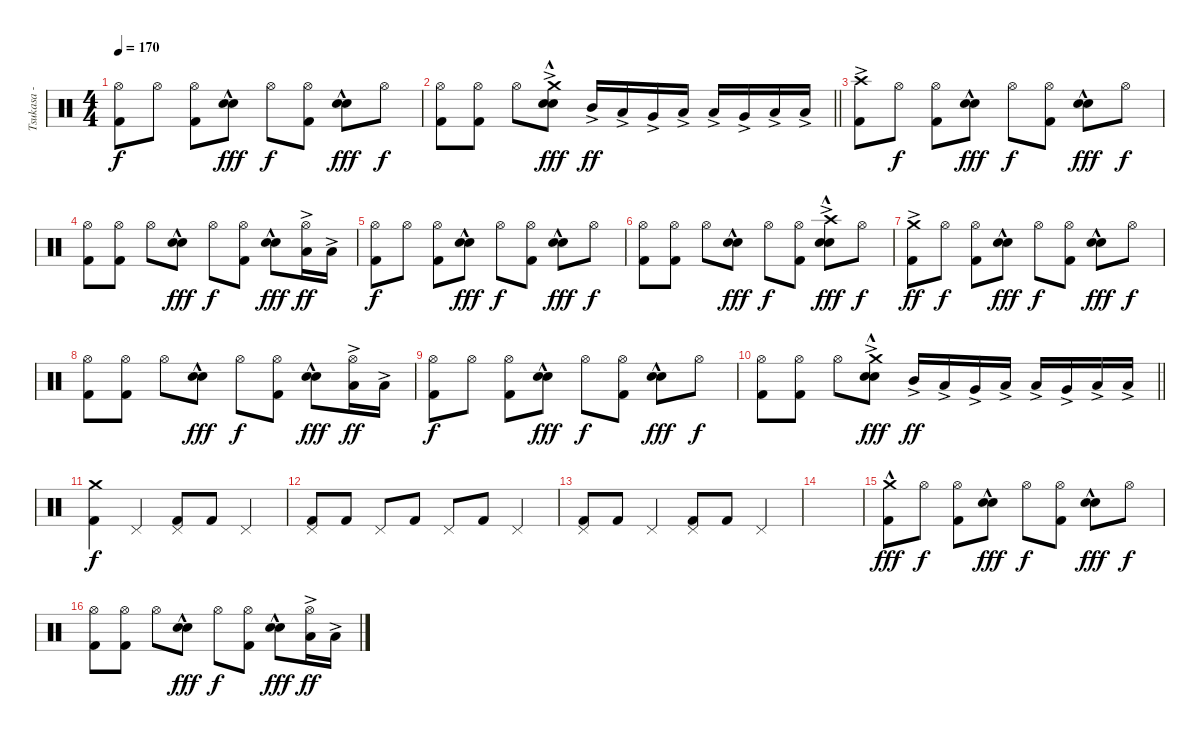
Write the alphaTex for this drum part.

\track ("Tsukasa - Drums" "Tsukasa - ") {instrument percussion}
\staff {score}
\articulation defaults
\ts (4 4)
\tempo 170
\clef neutral
\ks c
("Hi-Hat (open)" "Kick (hit) 2").8{dy f} "Hi-Hat (open)".8 ("Hi-Hat (open)" "Kick (hit) 2").8 ("Electric Snare (hit)"{hac} "Snare (hit) 2").8{dy fff} "Hi-Hat (open)".8{dy f} ("Hi-Hat (open)" "Kick (hit) 2").8 ("Electric Snare (hit)"{hac} "Snare (hit) 2").8{dy fff} "Hi-Hat (open)".8{dy f} |
\barLineRight lightlight
("Hi-Hat (open)" "Kick (hit) 2").8 ("Hi-Hat (open)" "Kick (hit) 2").8 "Hi-Hat (open)".8 ("Crash medium (hit)"{ac} "Electric Snare (hit)"{hac} "Snare (hit) 2").8{dy fff} "Mid Tom (hit)"{ac}.16{dy ff} "Low Tom (hit)"{ac}.16 "Very Low Tom (hit)"{ac}.16 "Low Floor Tom (hit)"{ac}.16 "Low Tom (hit)"{ac}.16 "Very Low Tom (hit)"{ac}.16 "Low Floor Tom (hit)"{ac}.16 "Low Floor Tom (hit)"{ac}.16 |
\section ("" "")
("Crash high (hit)"{ac} "Kick (hit) 2").8 "Hi-Hat (open)".8{dy f} ("Hi-Hat (open)" "Kick (hit) 2").8 ("Electric Snare (hit)"{hac} "Snare (hit) 2").8{dy fff} "Hi-Hat (open)".8{dy f} ("Hi-Hat (open)" "Kick (hit) 2").8 ("Electric Snare (hit)"{hac} "Snare (hit) 2").8{dy fff} "Hi-Hat (open)".8{dy f} |
("Hi-Hat (open)" "Kick (hit) 2").8 ("Hi-Hat (open)" "Kick (hit) 2").8 "Hi-Hat (open)".8 ("Electric Snare (hit)"{hac} "Snare (hit) 2").8{dy fff} "Hi-Hat (open)".8{dy f} ("Hi-Hat (open)" "Kick (hit) 2").8 ("Electric Snare (hit)"{hac} "Snare (hit) 2").8{dy fff} ("Hi-Hat (open)" "Low Tom (hit)"{ac}).16{dy ff} "Low Tom (hit)"{ac}.16 |
("Hi-Hat (open)" "Kick (hit) 2").8{dy f} "Hi-Hat (open)".8 ("Hi-Hat (open)" "Kick (hit) 2").8 ("Electric Snare (hit)"{hac} "Snare (hit) 2").8{dy fff} "Hi-Hat (open)".8{dy f} ("Hi-Hat (open)" "Kick (hit) 2").8 ("Electric Snare (hit)"{hac} "Snare (hit) 2").8{dy fff} "Hi-Hat (open)".8{dy f} |
("Hi-Hat (open)" "Kick (hit) 2").8 ("Hi-Hat (open)" "Kick (hit) 2").8 "Hi-Hat (open)".8 ("Electric Snare (hit)"{hac} "Snare (hit) 2").8{dy fff} "Hi-Hat (open)".8{dy f} ("Hi-Hat (open)" "Kick (hit) 2").8 ("Crash high (hit)"{ac} "Electric Snare (hit)"{hac} "Snare (hit) 2").8{dy fff} "Hi-Hat (open)".8{dy f} |
("Crash medium (hit)"{ac} "Kick (hit) 2").8{dy ff} "Hi-Hat (open)".8{dy f} ("Hi-Hat (open)" "Kick (hit) 2").8 ("Electric Snare (hit)"{hac} "Snare (hit) 2").8{dy fff} "Hi-Hat (open)".8{dy f} ("Hi-Hat (open)" "Kick (hit) 2").8 ("Electric Snare (hit)"{hac} "Snare (hit) 2").8{dy fff} "Hi-Hat (open)".8{dy f} |
("Hi-Hat (open)" "Kick (hit) 2").8 ("Hi-Hat (open)" "Kick (hit) 2").8 "Hi-Hat (open)".8 ("Electric Snare (hit)"{hac} "Snare (hit) 2").8{dy fff} "Hi-Hat (open)".8{dy f} ("Hi-Hat (open)" "Kick (hit) 2").8 ("Electric Snare (hit)"{hac} "Snare (hit) 2").8{dy fff} ("Hi-Hat (open)" "Low Tom (hit)"{ac}).16{dy ff} "Low Tom (hit)"{ac}.16 |
("Hi-Hat (open)" "Kick (hit) 2").8{dy f} "Hi-Hat (open)".8 ("Hi-Hat (open)" "Kick (hit) 2").8 ("Electric Snare (hit)"{hac} "Snare (hit) 2").8{dy fff} "Hi-Hat (open)".8{dy f} ("Hi-Hat (open)" "Kick (hit) 2").8 ("Electric Snare (hit)"{hac} "Snare (hit) 2").8{dy fff} "Hi-Hat (open)".8{dy f} |
\barLineRight lightlight
("Hi-Hat (open)" "Kick (hit) 2").8 ("Hi-Hat (open)" "Kick (hit) 2").8 "Hi-Hat (open)".8 ("Crash medium (hit)"{ac} "Electric Snare (hit)"{hac} "Snare (hit) 2").8{dy fff} "Mid Tom (hit)"{ac}.16{dy ff} "Low Tom (hit)"{ac}.16 "Very Low Tom (hit)"{ac}.16 "Low Floor Tom (hit)"{ac}.16 "Low Tom (hit)"{ac}.16 "Very Low Tom (hit)"{ac}.16 "Low Floor Tom (hit)"{ac}.16 "Low Floor Tom (hit)"{ac}.16 |
\section ("" "")
("Crash medium (hit)" "Kick (hit) 2").4{dy f} "Pedal Hi-Hat (hit)".4 ("Pedal Hi-Hat (hit)" "Kick (hit) 2").8 "Kick (hit) 2".8 "Pedal Hi-Hat (hit)".4 |
("Pedal Hi-Hat (hit)" "Kick (hit) 2").8 "Kick (hit) 2".8 "Pedal Hi-Hat (hit)".8 "Kick (hit) 2".8 "Pedal Hi-Hat (hit)".8 "Kick (hit) 2".8 "Pedal Hi-Hat (hit)".4 |
("Pedal Hi-Hat (hit)" "Kick (hit) 2").8 "Kick (hit) 2".8 "Pedal Hi-Hat (hit)".4 ("Pedal Hi-Hat (hit)" "Kick (hit) 2").8 "Kick (hit) 2".8 "Pedal Hi-Hat (hit)".4 |
|
("Crash medium (hit)"{hac} "Kick (hit) 2").8{dy fff} "Hi-Hat (open)".8{dy f} ("Hi-Hat (open)" "Kick (hit) 2").8 ("Electric Snare (hit)"{hac} "Snare (hit) 2").8{dy fff} "Hi-Hat (open)".8{dy f} ("Hi-Hat (open)" "Kick (hit) 2").8 ("Electric Snare (hit)"{hac} "Snare (hit) 2").8{dy fff} "Hi-Hat (open)".8{dy f} |
("Hi-Hat (open)" "Kick (hit) 2").8 ("Hi-Hat (open)" "Kick (hit) 2").8 "Hi-Hat (open)".8 ("Electric Snare (hit)"{hac} "Snare (hit) 2").8{dy fff} "Hi-Hat (open)".8{dy f} ("Hi-Hat (open)" "Kick (hit) 2").8 ("Electric Snare (hit)"{hac} "Snare (hit) 2").8{dy fff} ("Hi-Hat (open)" "Low Tom (hit)"{ac}).16{dy ff} "Low Tom (hit)"{ac}.16
